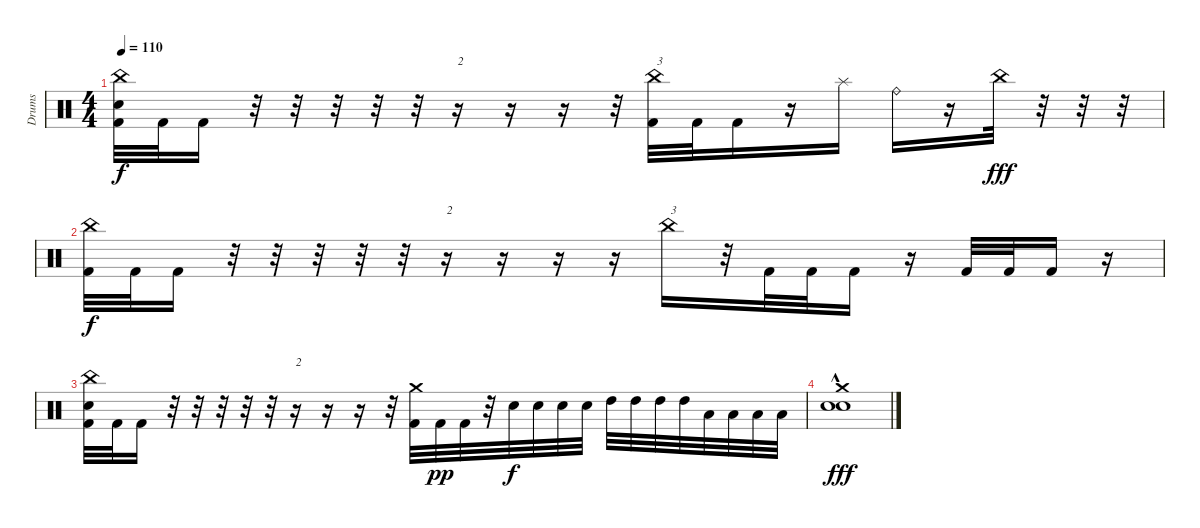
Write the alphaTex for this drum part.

\track ("Drums" "Drums") {instrument percussion}
\staff {score}
\articulation defaults
\ts (4 4)
\tempo 110
\clef neutral
\ks c
("China (hit)" "Electric Snare (hit)" "Kick (hit) 2").32{dy f} "Kick (hit) 2".32 "Kick (hit) 2".16 r.32 r.32 r.32 r.32 r.32 r.16{txt "2"} r.16 r.16 r.32 ("China (hit)" "Kick (hit) 2").32{txt "3"} "Kick (hit) 2".32 "Kick (hit) 2".16 r.16 "Splash (hit)".16 "Ride (bell)".16 r.16 "China (hit)".32{dy fff} r.32 r.32 r.32 |
("China (hit)" "Kick (hit) 2").32{dy f} "Kick (hit) 2".32 "Kick (hit) 2".16 r.32{volume 0} r.32 r.32 r.32 r.32 r.16{txt "2"} r.16 r.16 r.16 "China (hit)".16{txt "3" volume 13} r.32 "Kick (hit) 2".32 "Kick (hit) 2".32 "Kick (hit) 2".16 r.16 "Kick (hit) 2".32 "Kick (hit) 2".32 "Kick (hit) 2".16 r.16 |
("China (hit)" "Electric Snare (hit)" "Kick (hit) 2").32 "Kick (hit) 2".32 "Kick (hit) 2".16 r.32 r.32 r.32 r.32 r.32 r.16{txt "2"} r.16 r.16 r.32 ("Crash medium (hit)" "Kick (hit) 2").32 "Kick (hit) 2".32{dy pp} "Kick (hit) 2".32 r.32 "Electric Snare (hit)".32{dy f} "Electric Snare (hit)".32 "Electric Snare (hit)".32 "Electric Snare (hit)".32 "High Tom (hit)".32 "High Tom (hit)".32 "High Tom (hit)".32 "High Tom (hit)".32 "Low Tom (hit)".32 "Low Tom (hit)".32 "Low Tom (hit)".32 "Low Tom (hit)".32 |
("Crash medium (hit)"{hac} "Electric Snare (hit)"{hac} "Hand Clap (hit)"{hac}).1{dy fff}
